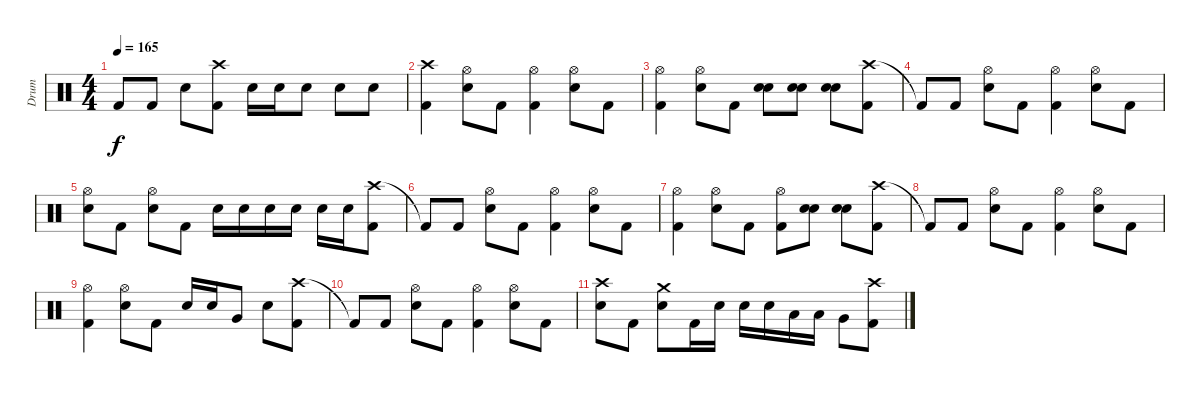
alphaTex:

\track ("Drum" "Drum") {instrument percussion}
\staff {score}
\articulation defaults
\ts (4 4)
\tempo 165
\clef neutral
\ks c "Kick (hit) 2"{t}.8{dy f} "Kick (hit) 2".8 "Electric Snare (hit)".8
("Crash high (hit)" "Kick (hit) 2").8 "Electric Snare (hit)".16 "Electric Snare (hit)".16 "Electric Snare (hit)".8 "Electric Snare (hit)".8 "Electric Snare (hit)".8 |
("Crash high (hit)" "Kick (hit) 2").4 ("Hi-Hat (open)" "Electric Snare (hit)").8 "Kick (hit) 2".8 ("Hi-Hat (open)" "Kick (hit) 2").4 ("Hi-Hat (open)" "Electric Snare (hit)").8 "Kick (hit) 2".8 |
("Hi-Hat (open)" "Kick (hit) 2").4 ("Hi-Hat (open)" "Electric Snare (hit)").8 "Kick (hit) 2".8 ("Electric Snare (hit)" "Electric Snare (hit)").8 ("Electric Snare (hit)" "Electric Snare (hit)").8 ("Electric Snare (hit)" "Electric Snare (hit)").8 ("Crash high (hit)" "Kick (hit) 2").8 |
"Kick (hit) 2"{t}.8 "Kick (hit) 2".8 ("Hi-Hat (open)" "Electric Snare (hit)").8 "Kick (hit) 2".8 ("Hi-Hat (open)" "Kick (hit) 2").4 ("Hi-Hat (open)" "Electric Snare (hit)").8 "Kick (hit) 2".8 |
("Hi-Hat (open)" "Electric Snare (hit)").8 "Kick (hit) 2".8 ("Hi-Hat (open)" "Electric Snare (hit)").8 "Kick (hit) 2".8 "Electric Snare (hit)".16 "Electric Snare (hit)".16 "Electric Snare (hit)".16 "Electric Snare (hit)".16 "Electric Snare (hit)".16 "Electric Snare (hit)".16 ("Crash high (hit)" "Kick (hit) 2").8 |
"Kick (hit) 2"{t}.8 "Kick (hit) 2".8 ("Hi-Hat (open)" "Electric Snare (hit)").8 "Kick (hit) 2".8 ("Hi-Hat (open)" "Kick (hit) 2").4 ("Hi-Hat (open)" "Electric Snare (hit)").8 "Kick (hit) 2".8 |
("Hi-Hat (open)" "Kick (hit) 2").4 ("Hi-Hat (open)" "Electric Snare (hit)").8 "Kick (hit) 2".8 ("Hi-Hat (open)" "Kick (hit) 2").8 ("Electric Snare (hit)" "Electric Snare (hit)").8 ("Electric Snare (hit)" "Electric Snare (hit)").8 ("Crash high (hit)" "Kick (hit) 2").8 |
"Kick (hit) 2"{t}.8 "Kick (hit) 2".8 ("Hi-Hat (open)" "Electric Snare (hit)").8 "Kick (hit) 2".8 ("Hi-Hat (open)" "Kick (hit) 2").4 ("Hi-Hat (open)" "Electric Snare (hit)").8 "Kick (hit) 2".8 |
("Hi-Hat (open)" "Kick (hit) 2").4 ("Hi-Hat (open)" "Electric Snare (hit)").8 "Kick (hit) 2".8 "Electric Snare (hit)".16 "Electric Snare (hit)".16 "Very Low Tom (hit)".8 "Electric Snare (hit)".8 ("Crash high (hit)" "Kick (hit) 2").8 |
"Kick (hit) 2"{t}.8 "Kick (hit) 2".8 ("Hi-Hat (open)" "Electric Snare (hit)").8 "Kick (hit) 2".8 ("Hi-Hat (open)" "Kick (hit) 2").4 ("Hi-Hat (open)" "Electric Snare (hit)").8 "Kick (hit) 2".8 |
("Crash high (hit)" "Electric Snare (hit)").8 "Kick (hit) 2".8 ("Crash medium (hit)" "Electric Snare (hit)").8 "Kick (hit) 2".16 "Electric Snare (hit)".16 "Electric Snare (hit)".16 "Electric Snare (hit)".16 "Low Tom (hit)".16 "Low Tom (hit)".16 "Very Low Tom (hit)".8 ("Crash high (hit)" "Kick (hit) 2").8
